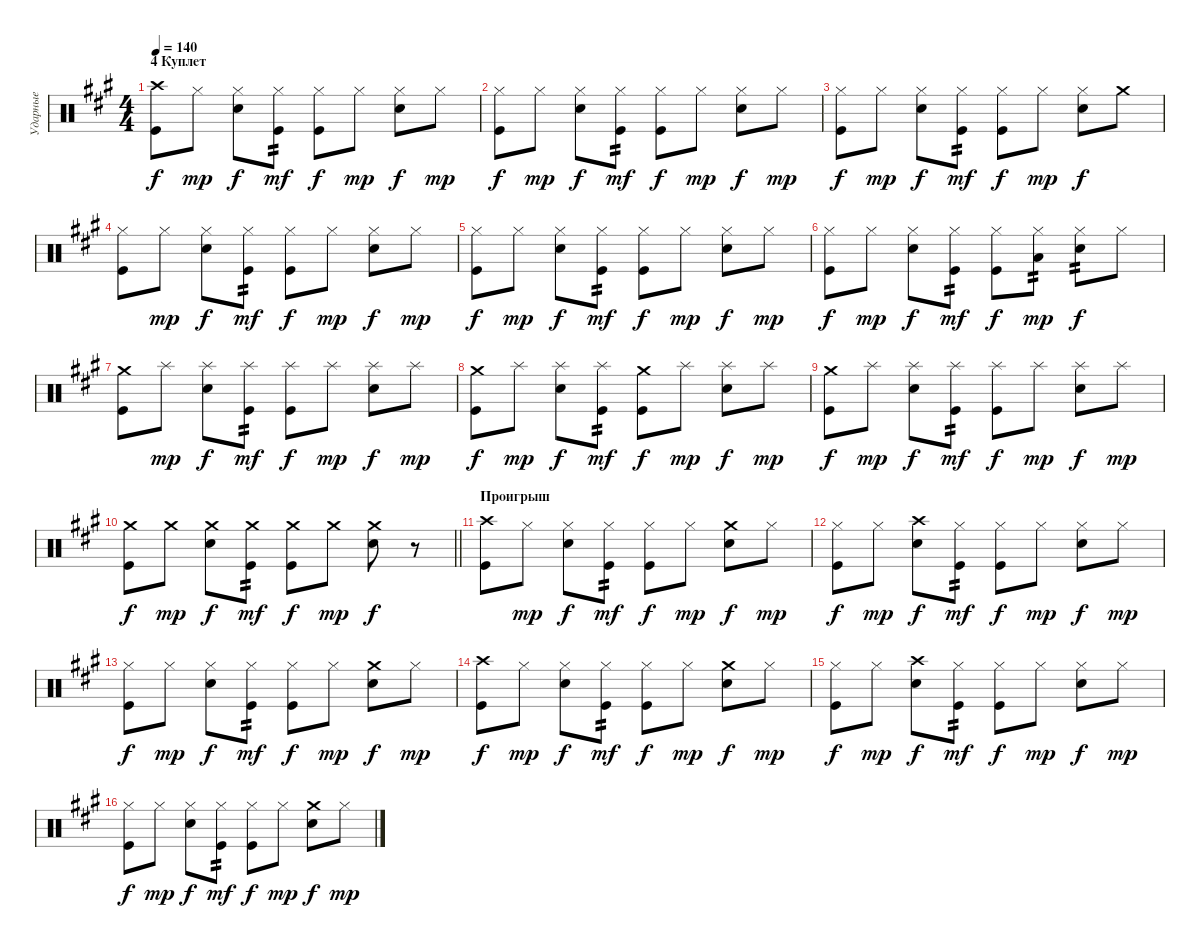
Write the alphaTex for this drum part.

\track ("Ударные" "Ударные") {instrument percussion}
\staff {score}
\articulation defaults
\ts (4 4)
\section ("" "4 Куплет")
\tempo 140
\clef neutral
\ks f#minor
("Crash high (hit)" "Kick (hit)").8{dy f} "Hi-Hat (closed)".8{dy mp} ("Hi-Hat (closed)" "Snare (hit) 2").8{dy f} ("Hi-Hat (closed)" "Kick (hit)").8{tp 2 dy mf} ("Hi-Hat (closed)" "Kick (hit)").8{dy f} "Hi-Hat (closed)".8{dy mp} ("Hi-Hat (closed)" "Snare (hit) 2").8{dy f} "Hi-Hat (closed)".8{dy mp} |
("Hi-Hat (closed)" "Kick (hit)").8{dy f} "Hi-Hat (closed)".8{dy mp} ("Hi-Hat (closed)" "Snare (hit) 2").8{dy f} ("Hi-Hat (closed)" "Kick (hit)").8{tp 2 dy mf} ("Hi-Hat (closed)" "Kick (hit)").8{dy f} "Hi-Hat (closed)".8{dy mp} ("Hi-Hat (closed)" "Snare (hit) 2").8{dy f} "Hi-Hat (closed)".8{dy mp} |
("Hi-Hat (closed)" "Kick (hit)").8{dy f} "Hi-Hat (closed)".8{dy mp} ("Hi-Hat (closed)" "Snare (hit) 2").8{dy f} ("Hi-Hat (closed)" "Kick (hit)").8{tp 2 dy mf} ("Hi-Hat (closed)" "Kick (hit)").8{dy f} "Hi-Hat (closed)".8{dy mp} ("Hi-Hat (closed)" "Snare (hit) 2").8{dy f} "Crash medium (hit)".8 |
("Hi-Hat (closed)" "Kick (hit)").8 "Hi-Hat (closed)".8{dy mp} ("Hi-Hat (closed)" "Snare (hit) 2").8{dy f} ("Hi-Hat (closed)" "Kick (hit)").8{tp 2 dy mf} ("Hi-Hat (closed)" "Kick (hit)").8{dy f} "Hi-Hat (closed)".8{dy mp} ("Hi-Hat (closed)" "Snare (hit) 2").8{dy f} "Hi-Hat (closed)".8{dy mp} |
("Hi-Hat (closed)" "Kick (hit)").8{dy f} "Hi-Hat (closed)".8{dy mp} ("Hi-Hat (closed)" "Snare (hit) 2").8{dy f} ("Hi-Hat (closed)" "Kick (hit)").8{tp 2 dy mf} ("Hi-Hat (closed)" "Kick (hit)").8{dy f} "Hi-Hat (closed)".8{dy mp} ("Hi-Hat (closed)" "Snare (hit) 2").8{dy f} "Hi-Hat (closed)".8{dy mp} |
("Hi-Hat (closed)" "Kick (hit)").8{dy f} "Hi-Hat (closed)".8{dy mp} ("Hi-Hat (closed)" "Snare (hit) 2").8{dy f} ("Hi-Hat (closed)" "Kick (hit)").8{tp 2 dy mf} ("Hi-Hat (closed)" "Kick (hit)").8{dy f} ("Hi-Hat (closed)" "Low Tom (hit)").8{tp 2 dy mp} ("Hi-Hat (closed)" "Snare (hit) 2").8{tp 2 dy f} "Hi-Hat (closed)".8 |
("Crash medium (hit)" "Kick (hit)").8 "Splash (hit)".8{dy mp} ("Splash (hit)" "Snare (hit) 2").8{dy f} ("Splash (hit)" "Kick (hit)").8{tp 2 dy mf} ("Splash (hit)" "Kick (hit)").8{dy f} "Splash (hit)".8{dy mp} ("Splash (hit)" "Snare (hit) 2").8{dy f} "Splash (hit)".8{dy mp} |
("Crash medium (hit)" "Kick (hit)").8{dy f} "Splash (hit)".8{dy mp} ("Splash (hit)" "Snare (hit) 2").8{dy f} ("Splash (hit)" "Kick (hit)").8{tp 2 dy mf} ("Crash medium (hit)" "Kick (hit)").8{dy f} "Splash (hit)".8{dy mp} ("Splash (hit)" "Snare (hit) 2").8{dy f} "Splash (hit)".8{dy mp} |
("Crash medium (hit)" "Kick (hit)").8{dy f} "Splash (hit)".8{dy mp} ("Splash (hit)" "Snare (hit) 2").8{dy f} ("Splash (hit)" "Kick (hit)").8{tp 2 dy mf} ("Splash (hit)" "Kick (hit)").8{dy f} "Splash (hit)".8{dy mp} ("Splash (hit)" "Snare (hit) 2").8{dy f} "Splash (hit)".8{dy mp} |
\barLineRight lightlight
("Crash medium (hit)" "Kick (hit)").8{dy f} "Crash medium (hit)".8{dy mp} ("Crash medium (hit)" "Snare (hit) 2").8{dy f} ("Crash medium (hit)" "Kick (hit)").8{tp 2 dy mf} ("Crash medium (hit)" "Kick (hit)").8{dy f} "Crash medium (hit)".8{dy mp} ("Crash medium (hit)" "Snare (hit) 2").8{dy f} r.8 |
\section ("" "Проигрыш")
("Crash high (hit)" "Kick (hit)").8 "Hi-Hat (closed)".8{dy mp} ("Hi-Hat (closed)" "Snare (hit) 2").8{dy f} ("Hi-Hat (closed)" "Kick (hit)").8{tp 2 dy mf} ("Hi-Hat (closed)" "Kick (hit)").8{dy f} "Hi-Hat (closed)".8{dy mp} ("Crash medium (hit)" "Snare (hit) 2").8{dy f} "Hi-Hat (closed)".8{dy mp} |
("Hi-Hat (closed)" "Kick (hit)").8{dy f} "Hi-Hat (closed)".8{dy mp} ("Crash high (hit)" "Snare (hit) 2").8{dy f} ("Hi-Hat (closed)" "Kick (hit)").8{tp 2 dy mf} ("Hi-Hat (closed)" "Kick (hit)").8{dy f} "Hi-Hat (closed)".8{dy mp} ("Hi-Hat (closed)" "Snare (hit) 2").8{dy f} "Hi-Hat (closed)".8{dy mp} |
("Hi-Hat (closed)" "Kick (hit)").8{dy f} "Hi-Hat (closed)".8{dy mp} ("Hi-Hat (closed)" "Snare (hit) 2").8{dy f} ("Hi-Hat (closed)" "Kick (hit)").8{tp 2 dy mf} ("Hi-Hat (closed)" "Kick (hit)").8{dy f} "Hi-Hat (closed)".8{dy mp} ("Crash medium (hit)" "Snare (hit) 2").8{dy f} "Hi-Hat (closed)".8{dy mp} |
("Crash high (hit)" "Kick (hit)").8{dy f} "Hi-Hat (closed)".8{dy mp} ("Hi-Hat (closed)" "Snare (hit) 2").8{dy f} ("Hi-Hat (closed)" "Kick (hit)").8{tp 2 dy mf} ("Hi-Hat (closed)" "Kick (hit)").8{dy f} "Hi-Hat (closed)".8{dy mp} ("Crash medium (hit)" "Snare (hit) 2").8{dy f} "Hi-Hat (closed)".8{dy mp} |
("Hi-Hat (closed)" "Kick (hit)").8{dy f} "Hi-Hat (closed)".8{dy mp} ("Crash high (hit)" "Snare (hit) 2").8{dy f} ("Hi-Hat (closed)" "Kick (hit)").8{tp 2 dy mf} ("Hi-Hat (closed)" "Kick (hit)").8{dy f} "Hi-Hat (closed)".8{dy mp} ("Hi-Hat (closed)" "Snare (hit) 2").8{dy f} "Hi-Hat (closed)".8{dy mp} |
("Hi-Hat (closed)" "Kick (hit)").8{dy f} "Hi-Hat (closed)".8{dy mp} ("Hi-Hat (closed)" "Snare (hit) 2").8{dy f} ("Hi-Hat (closed)" "Kick (hit)").8{tp 2 dy mf} ("Hi-Hat (closed)" "Kick (hit)").8{dy f} "Hi-Hat (closed)".8{dy mp} ("Crash medium (hit)" "Snare (hit) 2").8{dy f} "Hi-Hat (closed)".8{dy mp}
